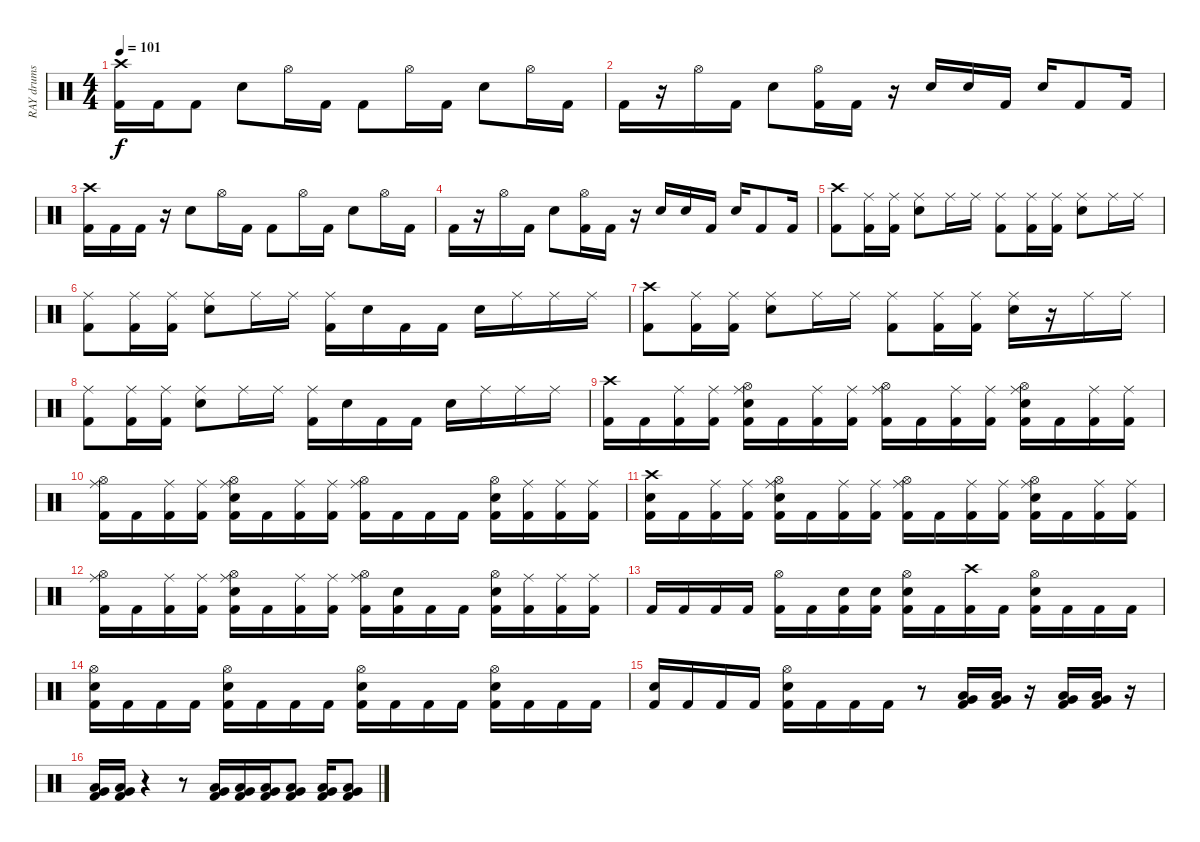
\track ("RAY drums" "RAY drums") {instrument percussion}
\staff {score}
\articulation defaults
\ts (4 4)
\tempo 101
\clef neutral
\ks c
("Crash high (hit)" "Kick (hit) 2").16{dy f} "Kick (hit) 2".16 "Kick (hit) 2".8 "Electric Snare (hit)".8 "Hi-Hat (open)".16 "Kick (hit) 2".16 "Kick (hit) 2".8 "Hi-Hat (open)".16 "Kick (hit) 2".16 "Electric Snare (hit)".8 "Hi-Hat (open)".16 "Kick (hit) 2".16 |
"Kick (hit) 2".16 r.16 "Hi-Hat (open)".16 "Kick (hit) 2".16 "Electric Snare (hit)".8 ("Kick (hit) 2" "Hi-Hat (open)").16 "Kick (hit) 2".16 r.16 "Electric Snare (hit)".16 "Electric Snare (hit)".16 "Kick (hit) 2".16 "Electric Snare (hit)".16 "Kick (hit) 2".8 "Kick (hit) 2".16 |
("Crash high (hit)" "Kick (hit) 2").16 "Kick (hit) 2".16 "Kick (hit) 2".16 r.16 "Electric Snare (hit)".8 "Hi-Hat (open)".16 "Kick (hit) 2".16 "Kick (hit) 2".8 "Hi-Hat (open)".16 "Kick (hit) 2".16 "Electric Snare (hit)".8 "Hi-Hat (open)".16 "Kick (hit) 2".16 |
"Kick (hit) 2".16 r.16 "Hi-Hat (open)".16 "Kick (hit) 2".16 "Electric Snare (hit)".8 ("Kick (hit) 2" "Hi-Hat (open)").16 "Kick (hit) 2".16 r.16 "Electric Snare (hit)".16 "Electric Snare (hit)".16 "Kick (hit) 2".16 "Electric Snare (hit)".16 "Kick (hit) 2".8 "Kick (hit) 2".16 |
("Crash high (hit)" "Kick (hit) 2").8 ("Ride (middle)" "Kick (hit) 2").16 ("Ride (middle)" "Kick (hit) 2").16 ("Ride (middle)" "Electric Snare (hit)").8 "Ride (middle)".16 "Ride (middle)".16 ("Ride (middle)" "Kick (hit) 2").8 ("Ride (middle)" "Kick (hit) 2").16 ("Ride (middle)" "Kick (hit) 2").16 ("Ride (middle)" "Electric Snare (hit)").8 "Ride (middle)".16 "Ride (middle)".16 |
("Ride (middle)" "Kick (hit) 2").8 ("Ride (middle)" "Kick (hit) 2").16 ("Ride (middle)" "Kick (hit) 2").16 ("Ride (middle)" "Electric Snare (hit)").8 "Ride (middle)".16 "Ride (middle)".16 ("Ride (middle)" "Kick (hit) 2").16 "Electric Snare (hit)".16 "Kick (hit) 2".16 "Kick (hit) 2".16 "Electric Snare (hit)".16 "Ride (middle)".16 "Ride (middle)".16 "Ride (middle)".16 |
("Crash high (hit)" "Kick (hit) 2").8 ("Ride (middle)" "Kick (hit) 2").16 ("Ride (middle)" "Kick (hit) 2").16 ("Ride (middle)" "Electric Snare (hit)").8 "Ride (middle)".16 "Ride (middle)".16 ("Ride (middle)" "Kick (hit) 2").8 ("Ride (middle)" "Kick (hit) 2").16 ("Ride (middle)" "Kick (hit) 2").16 ("Ride (middle)" "Electric Snare (hit)").16 r.16 "Ride (middle)".16 "Ride (middle)".16 |
("Ride (middle)" "Kick (hit) 2").8 ("Ride (middle)" "Kick (hit) 2").16 ("Ride (middle)" "Kick (hit) 2").16 ("Ride (middle)" "Electric Snare (hit)").8 "Ride (middle)".16 "Ride (middle)".16 ("Ride (middle)" "Kick (hit) 2").16 "Electric Snare (hit)".16 "Kick (hit) 2".16 "Kick (hit) 2".16 "Electric Snare (hit)".16 "Ride (middle)".16 "Ride (middle)".16 "Ride (middle)".16 |
("Crash high (hit)" "Kick (hit) 2").16 "Kick (hit) 2".16 ("Ride (middle)" "Kick (hit) 2").16 ("Ride (middle)" "Kick (hit) 2").16 ("Hi-Hat (open)" "Kick (hit) 2" "Ride (middle)" "Electric Snare (hit)").16 "Kick (hit) 2".16 ("Kick (hit) 2" "Ride (middle)").16 ("Kick (hit) 2" "Ride (middle)").16 ("Hi-Hat (open)" "Ride (middle)" "Kick (hit) 2").16 "Kick (hit) 2".16 ("Ride (middle)" "Kick (hit) 2").16 ("Ride (middle)" "Kick (hit) 2").16 ("Hi-Hat (open)" "Kick (hit) 2" "Ride (middle)" "Electric Snare (hit)").16 "Kick (hit) 2".16 ("Kick (hit) 2" "Ride (middle)").16 ("Kick (hit) 2" "Ride (middle)").16 |
("Hi-Hat (open)" "Ride (middle)" "Kick (hit) 2").16 "Kick (hit) 2".16 ("Ride (middle)" "Kick (hit) 2").16 ("Ride (middle)" "Kick (hit) 2").16 ("Hi-Hat (open)" "Kick (hit) 2" "Ride (middle)" "Electric Snare (hit)").16 "Kick (hit) 2".16 ("Kick (hit) 2" "Ride (middle)").16 ("Kick (hit) 2" "Ride (middle)").16 ("Hi-Hat (open)" "Ride (middle)" "Kick (hit) 2").16 "Kick (hit) 2".16 "Kick (hit) 2".16 "Kick (hit) 2".16 ("Hi-Hat (open)" "Kick (hit) 2" "Electric Snare (hit)").16 ("Kick (hit) 2" "Ride (middle)").16 ("Kick (hit) 2" "Ride (middle)").16 ("Kick (hit) 2" "Ride (middle)").16 |
("Electric Snare (hit)" "Crash high (hit)" "Kick (hit) 2").16 "Kick (hit) 2".16 ("Ride (middle)" "Kick (hit) 2").16 ("Ride (middle)" "Kick (hit) 2").16 ("Hi-Hat (open)" "Kick (hit) 2" "Ride (middle)" "Electric Snare (hit)").16 "Kick (hit) 2".16 ("Kick (hit) 2" "Ride (middle)").16 ("Kick (hit) 2" "Ride (middle)").16 ("Hi-Hat (open)" "Ride (middle)" "Kick (hit) 2").16 "Kick (hit) 2".16 ("Ride (middle)" "Kick (hit) 2").16 ("Ride (middle)" "Kick (hit) 2").16 ("Hi-Hat (open)" "Kick (hit) 2" "Ride (middle)" "Electric Snare (hit)").16 "Kick (hit) 2".16 ("Kick (hit) 2" "Ride (middle)").16 ("Kick (hit) 2" "Ride (middle)").16 |
("Hi-Hat (open)" "Ride (middle)" "Kick (hit) 2").16 "Kick (hit) 2".16 ("Ride (middle)" "Kick (hit) 2").16 ("Ride (middle)" "Kick (hit) 2").16 ("Hi-Hat (open)" "Kick (hit) 2" "Ride (middle)" "Electric Snare (hit)").16 "Kick (hit) 2".16 ("Kick (hit) 2" "Ride (middle)").16 ("Kick (hit) 2" "Ride (middle)").16 ("Hi-Hat (open)" "Ride (middle)" "Kick (hit) 2").16 ("Kick (hit) 2" "Electric Snare (hit)").16 "Kick (hit) 2".16 "Kick (hit) 2".16 ("Hi-Hat (open)" "Kick (hit) 2" "Electric Snare (hit)").16 ("Kick (hit) 2" "Ride (middle)").16 ("Kick (hit) 2" "Ride (middle)").16 ("Kick (hit) 2" "Ride (middle)").16 |
"Kick (hit) 2".16 "Kick (hit) 2".16 "Kick (hit) 2".16 "Kick (hit) 2".16 ("Hi-Hat (open)" "Kick (hit) 2").16 "Kick (hit) 2".16 ("Electric Snare (hit)" "Kick (hit) 2").16 ("Electric Snare (hit)" "Kick (hit) 2").16 ("Electric Snare (hit)" "Hi-Hat (open)" "Kick (hit) 2").16 "Kick (hit) 2".16 ("Crash high (hit)" "Kick (hit) 2").16 "Kick (hit) 2".16 ("Hi-Hat (open)" "Kick (hit) 2" "Electric Snare (hit)").16 "Kick (hit) 2".16 "Kick (hit) 2".16 "Kick (hit) 2".16 |
("Electric Snare (hit)" "Hi-Hat (open)" "Kick (hit) 2").16 "Kick (hit) 2".16 "Kick (hit) 2".16 "Kick (hit) 2".16 ("Hi-Hat (open)" "Kick (hit) 2" "Electric Snare (hit)").16 "Kick (hit) 2".16 "Kick (hit) 2".16 "Kick (hit) 2".16 ("Electric Snare (hit)" "Hi-Hat (open)" "Kick (hit) 2").16 "Kick (hit) 2".16 "Kick (hit) 2".16 "Kick (hit) 2".16 ("Hi-Hat (open)" "Kick (hit) 2" "Electric Snare (hit)").16 "Kick (hit) 2".16 "Kick (hit) 2".16 "Kick (hit) 2".16 |
("Electric Snare (hit)" "Kick (hit) 2").16 "Kick (hit) 2".16 "Kick (hit) 2".16 "Kick (hit) 2".16 ("Hi-Hat (open)" "Kick (hit) 2" "Electric Snare (hit)").16 "Kick (hit) 2".16 "Kick (hit) 2".16 "Kick (hit) 2".16 r.8 ("Low Tom (hit)" "Kick (hit) 2" "Very Low Tom (hit)").16 ("Kick (hit) 2" "Very Low Tom (hit)" "Low Tom (hit)").16 r.16 ("Kick (hit) 2" "Very Low Tom (hit)" "Low Tom (hit)").16 ("Kick (hit) 2" "Very Low Tom (hit)" "Low Tom (hit)").16 r.16 |
("Kick (hit) 2" "Very Low Tom (hit)" "Low Tom (hit)").16 ("Kick (hit) 2" "Very Low Tom (hit)" "Low Tom (hit)").16 r.4 r.8 ("Kick (hit) 2" "Very Low Tom (hit)" "Low Tom (hit)").16 ("Kick (hit) 2" "Very Low Tom (hit)" "Low Tom (hit)").16 ("Kick (hit) 2" "Very Low Tom (hit)" "Low Tom (hit)").16 ("Kick (hit) 2" "Very Low Tom (hit)" "Low Tom (hit)").8 ("Kick (hit) 2" "Very Low Tom (hit)" "Low Tom (hit)").16 ("Kick (hit) 2" "Very Low Tom (hit)" "Low Tom (hit)").8
